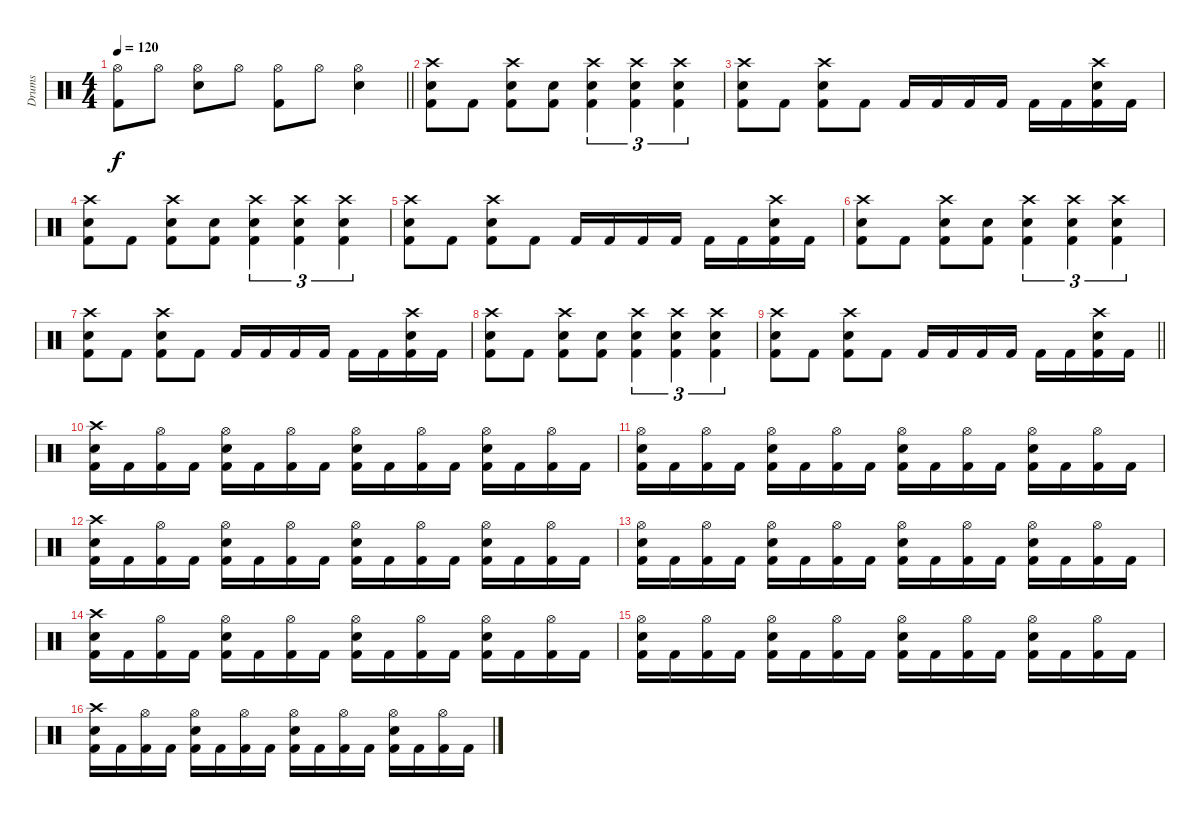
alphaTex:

\track ("Drums" "Drums") {instrument percussion}
\staff {score}
\articulation defaults
\ts (4 4)
\tempo 120
\clef neutral
\barLineRight lightlight
\ks c
("Hi-Hat (open)" "Kick (hit) 2").8{dy f} "Hi-Hat (open)".8 ("Hi-Hat (open)" "Electric Snare (hit)").8 "Hi-Hat (open)".8 ("Hi-Hat (open)" "Kick (hit) 2").8 "Hi-Hat (open)".8 ("Hi-Hat (open)" "Electric Snare (hit)").4 |
("Crash high (hit)" "Electric Snare (hit)" "Kick (hit) 2").8 "Kick (hit) 2".8 ("Crash high (hit)" "Electric Snare (hit)" "Kick (hit) 2").8 ("Electric Snare (hit)" "Kick (hit) 2").8 ("Crash high (hit)" "Electric Snare (hit)" "Kick (hit) 2").4{tu (3 2)} ("Crash high (hit)" "Electric Snare (hit)" "Kick (hit) 2").4{tu (3 2)} ("Crash high (hit)" "Electric Snare (hit)" "Kick (hit) 2").4{tu (3 2)} |
("Crash high (hit)" "Electric Snare (hit)" "Kick (hit) 2").8 "Kick (hit) 2".8 ("Crash high (hit)" "Electric Snare (hit)" "Kick (hit) 2").8 "Kick (hit) 2".8 "Kick (hit) 2".16 "Kick (hit) 2".16 "Kick (hit) 2".16 "Kick (hit) 2".16 "Kick (hit) 2".16 "Kick (hit) 2".16 ("Crash high (hit)" "Electric Snare (hit)" "Kick (hit) 2").16 "Kick (hit) 2".16 |
("Crash high (hit)" "Electric Snare (hit)" "Kick (hit) 2").8 "Kick (hit) 2".8 ("Crash high (hit)" "Electric Snare (hit)" "Kick (hit) 2").8 ("Electric Snare (hit)" "Kick (hit) 2").8 ("Crash high (hit)" "Electric Snare (hit)" "Kick (hit) 2").4{tu (3 2)} ("Crash high (hit)" "Electric Snare (hit)" "Kick (hit) 2").4{tu (3 2)} ("Crash high (hit)" "Electric Snare (hit)" "Kick (hit) 2").4{tu (3 2)} |
("Crash high (hit)" "Electric Snare (hit)" "Kick (hit) 2").8 "Kick (hit) 2".8 ("Crash high (hit)" "Electric Snare (hit)" "Kick (hit) 2").8 "Kick (hit) 2".8 "Kick (hit) 2".16 "Kick (hit) 2".16 "Kick (hit) 2".16 "Kick (hit) 2".16 "Kick (hit) 2".16 "Kick (hit) 2".16 ("Crash high (hit)" "Electric Snare (hit)" "Kick (hit) 2").16 "Kick (hit) 2".16 |
("Crash high (hit)" "Electric Snare (hit)" "Kick (hit) 2").8 "Kick (hit) 2".8 ("Crash high (hit)" "Electric Snare (hit)" "Kick (hit) 2").8 ("Electric Snare (hit)" "Kick (hit) 2").8 ("Crash high (hit)" "Electric Snare (hit)" "Kick (hit) 2").4{tu (3 2)} ("Crash high (hit)" "Electric Snare (hit)" "Kick (hit) 2").4{tu (3 2)} ("Crash high (hit)" "Electric Snare (hit)" "Kick (hit) 2").4{tu (3 2)} |
("Crash high (hit)" "Electric Snare (hit)" "Kick (hit) 2").8 "Kick (hit) 2".8 ("Crash high (hit)" "Electric Snare (hit)" "Kick (hit) 2").8 "Kick (hit) 2".8 "Kick (hit) 2".16 "Kick (hit) 2".16 "Kick (hit) 2".16 "Kick (hit) 2".16 "Kick (hit) 2".16 "Kick (hit) 2".16 ("Crash high (hit)" "Electric Snare (hit)" "Kick (hit) 2").16 "Kick (hit) 2".16 |
("Crash high (hit)" "Electric Snare (hit)" "Kick (hit) 2").8 "Kick (hit) 2".8 ("Crash high (hit)" "Electric Snare (hit)" "Kick (hit) 2").8 ("Electric Snare (hit)" "Kick (hit) 2").8 ("Crash high (hit)" "Electric Snare (hit)" "Kick (hit) 2").4{tu (3 2)} ("Crash high (hit)" "Electric Snare (hit)" "Kick (hit) 2").4{tu (3 2)} ("Crash high (hit)" "Electric Snare (hit)" "Kick (hit) 2").4{tu (3 2)} |
\barLineRight lightlight
("Crash high (hit)" "Electric Snare (hit)" "Kick (hit) 2").8 "Kick (hit) 2".8 ("Crash high (hit)" "Electric Snare (hit)" "Kick (hit) 2").8 "Kick (hit) 2".8 "Kick (hit) 2".16 "Kick (hit) 2".16 "Kick (hit) 2".16 "Kick (hit) 2".16 "Kick (hit) 2".16 "Kick (hit) 2".16 ("Crash high (hit)" "Electric Snare (hit)" "Kick (hit) 2").16 "Kick (hit) 2".16 |
("Crash high (hit)" "Electric Snare (hit)" "Kick (hit) 2").16 "Kick (hit) 2".16 ("Hi-Hat (open)" "Kick (hit) 2").16 "Kick (hit) 2".16 ("Hi-Hat (open)" "Electric Snare (hit)" "Kick (hit) 2").16 "Kick (hit) 2".16 ("Hi-Hat (open)" "Kick (hit) 2").16 "Kick (hit) 2".16 ("Hi-Hat (open)" "Electric Snare (hit)" "Kick (hit) 2").16 "Kick (hit) 2".16 ("Hi-Hat (open)" "Kick (hit) 2").16 "Kick (hit) 2".16 ("Hi-Hat (open)" "Electric Snare (hit)" "Kick (hit) 2").16 "Kick (hit) 2".16 ("Hi-Hat (open)" "Kick (hit) 2").16 "Kick (hit) 2".16 |
("Hi-Hat (open)" "Electric Snare (hit)" "Kick (hit) 2").16 "Kick (hit) 2".16 ("Hi-Hat (open)" "Kick (hit) 2").16 "Kick (hit) 2".16 ("Hi-Hat (open)" "Electric Snare (hit)" "Kick (hit) 2").16 "Kick (hit) 2".16 ("Hi-Hat (open)" "Kick (hit) 2").16 "Kick (hit) 2".16 ("Hi-Hat (open)" "Electric Snare (hit)" "Kick (hit) 2").16 "Kick (hit) 2".16 ("Hi-Hat (open)" "Kick (hit) 2").16 "Kick (hit) 2".16 ("Hi-Hat (open)" "Electric Snare (hit)" "Kick (hit) 2").16 "Kick (hit) 2".16 ("Hi-Hat (open)" "Kick (hit) 2").16 "Kick (hit) 2".16 |
("Crash high (hit)" "Electric Snare (hit)" "Kick (hit) 2").16 "Kick (hit) 2".16 ("Hi-Hat (open)" "Kick (hit) 2").16 "Kick (hit) 2".16 ("Hi-Hat (open)" "Electric Snare (hit)" "Kick (hit) 2").16 "Kick (hit) 2".16 ("Hi-Hat (open)" "Kick (hit) 2").16 "Kick (hit) 2".16 ("Hi-Hat (open)" "Electric Snare (hit)" "Kick (hit) 2").16 "Kick (hit) 2".16 ("Hi-Hat (open)" "Kick (hit) 2").16 "Kick (hit) 2".16 ("Hi-Hat (open)" "Electric Snare (hit)" "Kick (hit) 2").16 "Kick (hit) 2".16 ("Hi-Hat (open)" "Kick (hit) 2").16 "Kick (hit) 2".16 |
("Hi-Hat (open)" "Electric Snare (hit)" "Kick (hit) 2").16 "Kick (hit) 2".16 ("Hi-Hat (open)" "Kick (hit) 2").16 "Kick (hit) 2".16 ("Hi-Hat (open)" "Electric Snare (hit)" "Kick (hit) 2").16 "Kick (hit) 2".16 ("Hi-Hat (open)" "Kick (hit) 2").16 "Kick (hit) 2".16 ("Hi-Hat (open)" "Electric Snare (hit)" "Kick (hit) 2").16 "Kick (hit) 2".16 ("Hi-Hat (open)" "Kick (hit) 2").16 "Kick (hit) 2".16 ("Hi-Hat (open)" "Electric Snare (hit)" "Kick (hit) 2").16 "Kick (hit) 2".16 ("Hi-Hat (open)" "Kick (hit) 2").16 "Kick (hit) 2".16 |
("Crash high (hit)" "Electric Snare (hit)" "Kick (hit) 2").16 "Kick (hit) 2".16 ("Hi-Hat (open)" "Kick (hit) 2").16 "Kick (hit) 2".16 ("Hi-Hat (open)" "Electric Snare (hit)" "Kick (hit) 2").16 "Kick (hit) 2".16 ("Hi-Hat (open)" "Kick (hit) 2").16 "Kick (hit) 2".16 ("Hi-Hat (open)" "Electric Snare (hit)" "Kick (hit) 2").16 "Kick (hit) 2".16 ("Hi-Hat (open)" "Kick (hit) 2").16 "Kick (hit) 2".16 ("Hi-Hat (open)" "Electric Snare (hit)" "Kick (hit) 2").16 "Kick (hit) 2".16 ("Hi-Hat (open)" "Kick (hit) 2").16 "Kick (hit) 2".16 |
("Hi-Hat (open)" "Electric Snare (hit)" "Kick (hit) 2").16 "Kick (hit) 2".16 ("Hi-Hat (open)" "Kick (hit) 2").16 "Kick (hit) 2".16 ("Hi-Hat (open)" "Electric Snare (hit)" "Kick (hit) 2").16 "Kick (hit) 2".16 ("Hi-Hat (open)" "Kick (hit) 2").16 "Kick (hit) 2".16 ("Hi-Hat (open)" "Electric Snare (hit)" "Kick (hit) 2").16 "Kick (hit) 2".16 ("Hi-Hat (open)" "Kick (hit) 2").16 "Kick (hit) 2".16 ("Hi-Hat (open)" "Electric Snare (hit)" "Kick (hit) 2").16 "Kick (hit) 2".16 ("Hi-Hat (open)" "Kick (hit) 2").16 "Kick (hit) 2".16 |
("Crash high (hit)" "Electric Snare (hit)" "Kick (hit) 2").16 "Kick (hit) 2".16 ("Hi-Hat (open)" "Kick (hit) 2").16 "Kick (hit) 2".16 ("Hi-Hat (open)" "Electric Snare (hit)" "Kick (hit) 2").16 "Kick (hit) 2".16 ("Hi-Hat (open)" "Kick (hit) 2").16 "Kick (hit) 2".16 ("Hi-Hat (open)" "Electric Snare (hit)" "Kick (hit) 2").16 "Kick (hit) 2".16 ("Hi-Hat (open)" "Kick (hit) 2").16 "Kick (hit) 2".16 ("Hi-Hat (open)" "Electric Snare (hit)" "Kick (hit) 2").16 "Kick (hit) 2".16 ("Hi-Hat (open)" "Kick (hit) 2").16 "Kick (hit) 2".16
